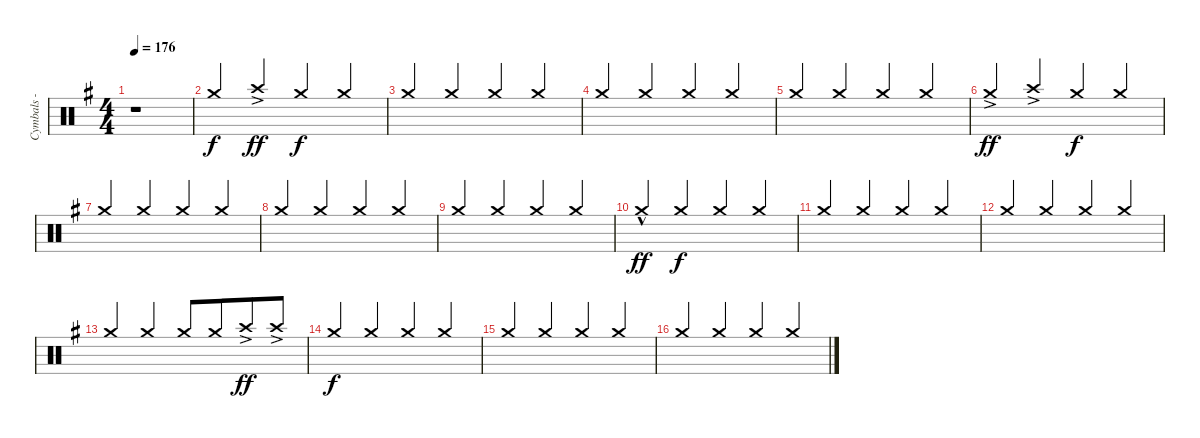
\track ("Cymbals - crash" "Cymbals - ") {instrument percussion}
\staff {score}
\articulation defaults
\ts (4 4)
\tempo 176
\clef neutral
\ks eminor
r.1{dy ff} |
"Crash medium (hit)".4{dy f balance 5 beam Up} "Crash high (hit)"{ac}.4{dy ff beam Up} "Crash medium (hit)".4{dy f beam Up} "Crash medium (hit)".4{beam Up} |
"Crash medium (hit)".4{beam Up} "Crash medium (hit)".4{beam Up} "Crash medium (hit)".4{beam Up} "Crash medium (hit)".4{beam Up} |
"Crash medium (hit)".4{beam Up} "Crash medium (hit)".4{beam Up} "Crash medium (hit)".4{beam Up} "Crash medium (hit)".4{beam Up} |
"Crash medium (hit)".4{beam Up} "Crash medium (hit)".4{beam Up} "Crash medium (hit)".4{beam Up} "Crash medium (hit)".4{beam Up} |
"Crash medium (hit)"{ac}.4{dy ff beam Up} "Crash high (hit)"{ac}.4{beam Up} "Crash medium (hit)".4{dy f beam Up} "Crash medium (hit)".4{beam Up} |
"Crash medium (hit)".4{beam Up} "Crash medium (hit)".4{beam Up} "Crash medium (hit)".4{beam Up} "Crash medium (hit)".4{beam Up} |
"Crash medium (hit)".4{beam Up} "Crash medium (hit)".4{beam Up} "Crash medium (hit)".4{beam Up} "Crash medium (hit)".4{beam Up} |
"Crash medium (hit)".4{beam Up} "Crash medium (hit)".4{beam Up} "Crash medium (hit)".4{beam Up} "Crash medium (hit)".4{beam Up} |
"Crash medium (hit)"{hac}.4{dy ff beam Up} "Crash medium (hit)".4{dy f beam Up} "Crash medium (hit)".4{beam Up} "Crash medium (hit)".4{beam Up} |
"Crash medium (hit)".4{beam Up} "Crash medium (hit)".4{beam Up} "Crash medium (hit)".4{beam Up} "Crash medium (hit)".4{beam Up} |
"Crash medium (hit)".4{beam Up} "Crash medium (hit)".4{beam Up} "Crash medium (hit)".4{beam Up} "Crash medium (hit)".4{beam Up} |
"Crash medium (hit)".4{beam Up} "Crash medium (hit)".4{beam Up} "Crash medium (hit)".8{beam Up} "Crash medium (hit)".8{beam Up beam merge} "Crash high (hit)"{ac}.8{dy ff beam Up} "Crash high (hit)"{ac}.8{beam Up} |
"Crash medium (hit)".4{dy f beam Up} "Crash medium (hit)".4{beam Up} "Crash medium (hit)".4{beam Up} "Crash medium (hit)".4{beam Up} |
"Crash medium (hit)".4{beam Up} "Crash medium (hit)".4{beam Up} "Crash medium (hit)".4{beam Up} "Crash medium (hit)".4{beam Up} |
"Crash medium (hit)".4{beam Up} "Crash medium (hit)".4{beam Up} "Crash medium (hit)".4{beam Up} "Crash medium (hit)".4{beam Up}
